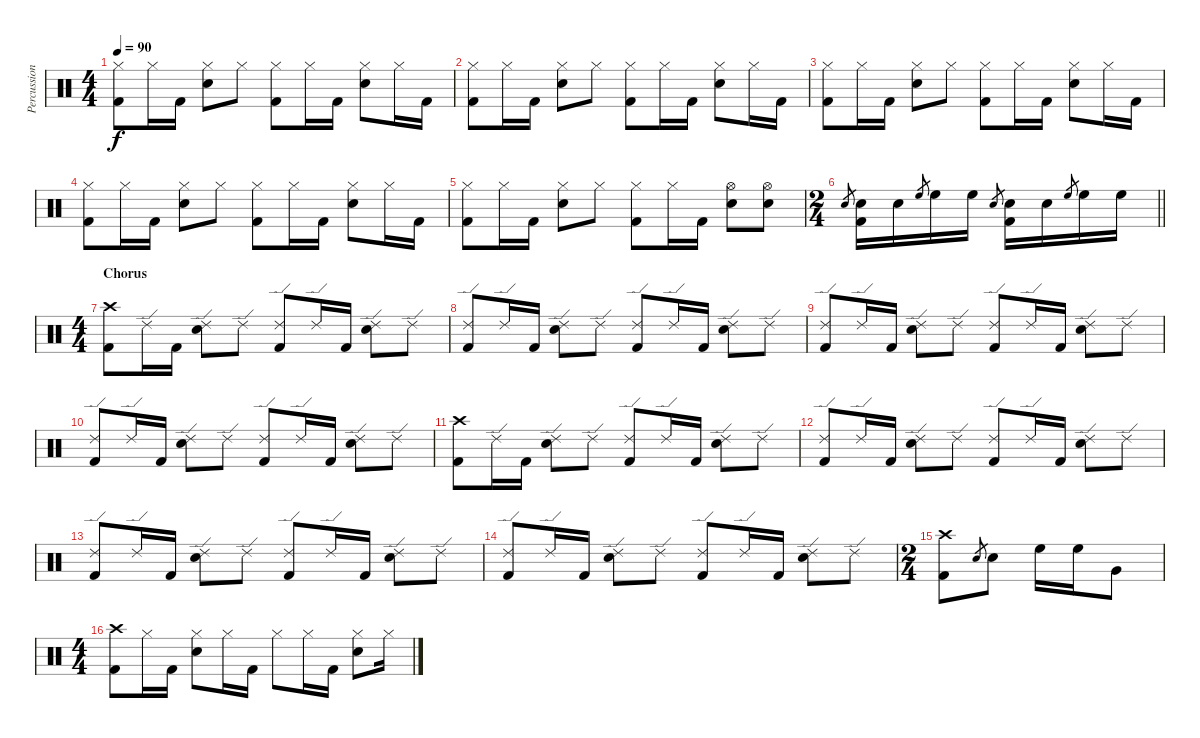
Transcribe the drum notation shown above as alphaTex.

\track ("Percussion" "Percussion") {instrument percussion}
\staff {score}
\articulation defaults
\ts (4 4)
\tempo 90
\clef neutral
\ks c
("Hi-Hat (closed)" "Kick (hit) 2").8{dy f} "Hi-Hat (closed)".16 "Kick (hit) 2".16 ("Hi-Hat (closed)" "Electric Snare (hit)").8 "Hi-Hat (closed)".8 ("Hi-Hat (closed)" "Kick (hit) 2").8 "Hi-Hat (closed)".16 "Kick (hit) 2".16 ("Hi-Hat (closed)" "Electric Snare (hit)").8 "Hi-Hat (closed)".16 "Kick (hit) 2".16 |
("Hi-Hat (closed)" "Kick (hit) 2").8 "Hi-Hat (closed)".16 "Kick (hit) 2".16 ("Hi-Hat (closed)" "Electric Snare (hit)").8 "Hi-Hat (closed)".8 ("Hi-Hat (closed)" "Kick (hit) 2").8 "Hi-Hat (closed)".16 "Kick (hit) 2".16 ("Hi-Hat (closed)" "Electric Snare (hit)").8 "Hi-Hat (closed)".16 "Kick (hit) 2".16 |
("Hi-Hat (closed)" "Kick (hit) 2").8 "Hi-Hat (closed)".16 "Kick (hit) 2".16 ("Hi-Hat (closed)" "Electric Snare (hit)").8 "Hi-Hat (closed)".8 ("Hi-Hat (closed)" "Kick (hit) 2").8 "Hi-Hat (closed)".16 "Kick (hit) 2".16 ("Hi-Hat (closed)" "Electric Snare (hit)").8 "Hi-Hat (closed)".16 "Kick (hit) 2".16 |
("Hi-Hat (closed)" "Kick (hit) 2").8 "Hi-Hat (closed)".16 "Kick (hit) 2".16 ("Hi-Hat (closed)" "Electric Snare (hit)").8 "Hi-Hat (closed)".8 ("Hi-Hat (closed)" "Kick (hit) 2").8 "Hi-Hat (closed)".16 "Kick (hit) 2".16 ("Hi-Hat (closed)" "Electric Snare (hit)").8 "Hi-Hat (closed)".16 "Kick (hit) 2".16 |
("Hi-Hat (closed)" "Kick (hit) 2").8 "Hi-Hat (closed)".16 "Kick (hit) 2".16 ("Hi-Hat (closed)" "Electric Snare (hit)").8 "Hi-Hat (closed)".8 ("Hi-Hat (closed)" "Kick (hit) 2").8 "Hi-Hat (closed)".16 "Kick (hit) 2".16 ("Hi-Hat (open)" "Electric Snare (hit)").8 ("Hi-Hat (open)" "Electric Snare (hit)").8 |
\ts (2 4)
\barLineRight lightlight "Electric Snare (hit)".8{gr}
("Electric Snare (hit)" "Kick (hit) 2").16 "Electric Snare (hit)".16 "High Floor Tom (hit)".8{gr} "High Floor Tom (hit)".16 "High Floor Tom (hit)".16 "Electric Snare (hit)".8{gr} ("Electric Snare (hit)" "Kick (hit) 2").16 "Electric Snare (hit)".16 "High Floor Tom (hit)".8{gr} "High Floor Tom (hit)".16 "High Floor Tom (hit)".16 |
\ts (4 4)
\section ("" "Chorus")
("Crash high (hit)" "Kick (hit) 2").8 "Ride (edge) 2".16 "Kick (hit) 2".16 ("Ride (edge) 2" "Electric Snare (hit)").8 "Ride (edge) 2".8 ("Ride (edge) 2" "Kick (hit) 2").8 "Ride (edge) 2".16 "Kick (hit) 2".16 ("Ride (edge) 2" "Electric Snare (hit)").8 "Ride (edge) 2".8 |
("Ride (edge) 2" "Kick (hit) 2").8 "Ride (edge) 2".16 "Kick (hit) 2".16 ("Ride (edge) 2" "Electric Snare (hit)").8 "Ride (edge) 2".8 ("Ride (edge) 2" "Kick (hit) 2").8 "Ride (edge) 2".16 "Kick (hit) 2".16 ("Ride (edge) 2" "Electric Snare (hit)").8 "Ride (edge) 2".8 |
("Ride (edge) 2" "Kick (hit) 2").8 "Ride (edge) 2".16 "Kick (hit) 2".16 ("Ride (edge) 2" "Electric Snare (hit)").8 "Ride (edge) 2".8 ("Ride (edge) 2" "Kick (hit) 2").8 "Ride (edge) 2".16 "Kick (hit) 2".16 ("Ride (edge) 2" "Electric Snare (hit)").8 "Ride (edge) 2".8 |
("Ride (edge) 2" "Kick (hit) 2").8 "Ride (edge) 2".16 "Kick (hit) 2".16 ("Ride (edge) 2" "Electric Snare (hit)").8 "Ride (edge) 2".8 ("Ride (edge) 2" "Kick (hit) 2").8 "Ride (edge) 2".16 "Kick (hit) 2".16 ("Ride (edge) 2" "Electric Snare (hit)").8 "Ride (edge) 2".8 |
("Crash high (hit)" "Kick (hit) 2").8 "Ride (edge) 2".16 "Kick (hit) 2".16 ("Ride (edge) 2" "Electric Snare (hit)").8 "Ride (edge) 2".8 ("Ride (edge) 2" "Kick (hit) 2").8 "Ride (edge) 2".16 "Kick (hit) 2".16 ("Ride (edge) 2" "Electric Snare (hit)").8 "Ride (edge) 2".8 |
("Ride (edge) 2" "Kick (hit) 2").8 "Ride (edge) 2".16 "Kick (hit) 2".16 ("Ride (edge) 2" "Electric Snare (hit)").8 "Ride (edge) 2".8 ("Ride (edge) 2" "Kick (hit) 2").8 "Ride (edge) 2".16 "Kick (hit) 2".16 ("Ride (edge) 2" "Electric Snare (hit)").8 "Ride (edge) 2".8 |
("Ride (edge) 2" "Kick (hit) 2").8 "Ride (edge) 2".16 "Kick (hit) 2".16 ("Ride (edge) 2" "Electric Snare (hit)").8 "Ride (edge) 2".8 ("Ride (edge) 2" "Kick (hit) 2").8 "Ride (edge) 2".16 "Kick (hit) 2".16 ("Ride (edge) 2" "Electric Snare (hit)").8 "Ride (edge) 2".8 |
("Ride (edge) 2" "Kick (hit) 2").8 "Ride (edge) 2".16 "Kick (hit) 2".16 ("Ride (edge) 2" "Electric Snare (hit)").8 "Ride (edge) 2".8 ("Ride (edge) 2" "Kick (hit) 2").8 "Ride (edge) 2".16 "Kick (hit) 2".16 ("Ride (edge) 2" "Electric Snare (hit)").8 "Ride (edge) 2".8 |
\ts (2 4)
("Crash high (hit)" "Kick (hit) 2").8 "Electric Snare (hit)".8{gr} "Electric Snare (hit)".8 "High Floor Tom (hit)".16 "High Floor Tom (hit)".16 "Very Low Tom (hit)".8 |
\ts (4 4)
("Crash high (hit)" "Kick (hit) 2").8 "Hi-Hat (closed)".16 "Kick (hit) 2".16 ("Hi-Hat (closed)" "Electric Snare (hit)").8 "Hi-Hat (closed)".16 "Kick (hit) 2".16 "Hi-Hat (closed)".8 "Hi-Hat (closed)".16 "Kick (hit) 2".16 ("Hi-Hat (closed)" "Electric Snare (hit)").8 "Hi-Hat (closed)".16
